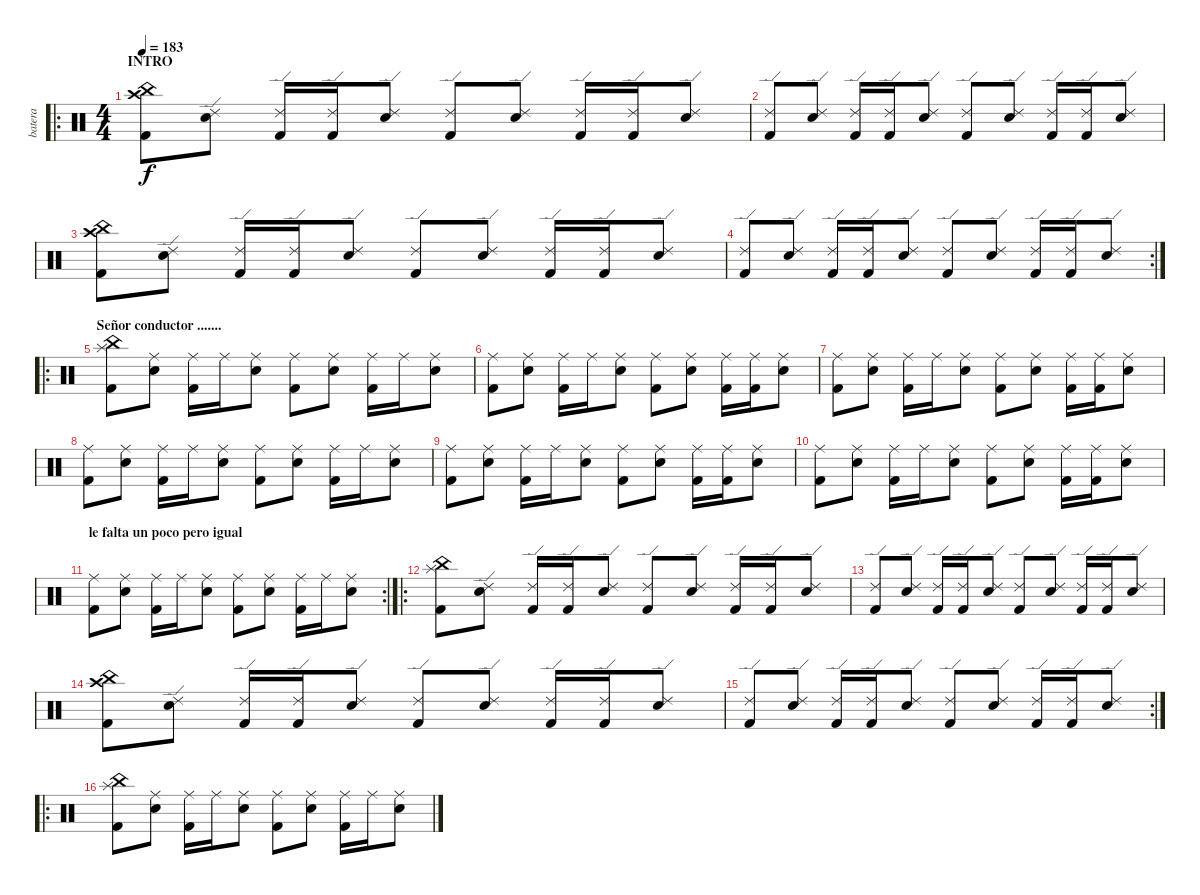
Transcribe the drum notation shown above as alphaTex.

\track ("batera" "batera") {instrument percussion}
\staff {score}
\articulation defaults
\ro
\ts (4 4)
\section ("" "INTRO")
\tempo 183
\clef neutral
\ks c
("China (hit)" "Crash high (hit)" "Kick (hit) 2").8{dy f} ("Ride (edge) 2" "Snare (hit) 2").8 ("Ride (edge) 2" "Kick (hit) 2").16 ("Ride (edge) 2" "Kick (hit) 2").16 ("Ride (edge) 2" "Snare (hit) 2").8 ("Ride (edge) 2" "Kick (hit) 2").8 ("Ride (edge) 2" "Snare (hit) 2").8 ("Ride (edge) 2" "Kick (hit) 2").16 ("Ride (edge) 2" "Kick (hit) 2").16 ("Ride (edge) 2" "Snare (hit) 2").8 |
("Ride (edge) 2" "Kick (hit) 2").8 ("Ride (edge) 2" "Snare (hit) 2").8 ("Ride (edge) 2" "Kick (hit) 2").16 ("Ride (edge) 2" "Kick (hit) 2").16 ("Ride (edge) 2" "Snare (hit) 2").8 ("Ride (edge) 2" "Kick (hit) 2").8 ("Ride (edge) 2" "Snare (hit) 2").8 ("Ride (edge) 2" "Kick (hit) 2").16 ("Ride (edge) 2" "Kick (hit) 2").16 ("Ride (edge) 2" "Snare (hit) 2").8 |
("China (hit)" "Crash high (hit)" "Kick (hit) 2").8 ("Ride (edge) 2" "Snare (hit) 2").8 ("Ride (edge) 2" "Kick (hit) 2").16 ("Ride (edge) 2" "Kick (hit) 2").16 ("Ride (edge) 2" "Snare (hit) 2").8 ("Ride (edge) 2" "Kick (hit) 2").8 ("Ride (edge) 2" "Snare (hit) 2").8 ("Ride (edge) 2" "Kick (hit) 2").16 ("Ride (edge) 2" "Kick (hit) 2").16 ("Ride (edge) 2" "Snare (hit) 2").8 |
\rc 2
("Ride (edge) 2" "Kick (hit) 2").8 ("Ride (edge) 2" "Snare (hit) 2").8 ("Ride (edge) 2" "Kick (hit) 2").16 ("Ride (edge) 2" "Kick (hit) 2").16 ("Ride (edge) 2" "Snare (hit) 2").8 ("Ride (edge) 2" "Kick (hit) 2").8 ("Ride (edge) 2" "Snare (hit) 2").8 ("Ride (edge) 2" "Kick (hit) 2").16 ("Ride (edge) 2" "Kick (hit) 2").16 ("Ride (edge) 2" "Snare (hit) 2").8 |
\ro
\section ("" "Señor conductor .......")
("China (hit)" "Splash (hit)" "Kick (hit) 2").8 ("Ride (middle)" "Snare (hit) 2").8 ("Ride (middle)" "Kick (hit) 2").16 "Ride (middle)".16 ("Ride (middle)" "Snare (hit) 2").8 ("Ride (middle)" "Kick (hit) 2").8 ("Ride (middle)" "Snare (hit) 2").8 ("Ride (middle)" "Kick (hit) 2").16 "Ride (middle)".16 ("Ride (middle)" "Snare (hit) 2").8 |
("Ride (middle)" "Kick (hit) 2").8 ("Ride (middle)" "Snare (hit) 2").8 ("Ride (middle)" "Kick (hit) 2").16 "Ride (middle)".16 ("Ride (middle)" "Snare (hit) 2").8 ("Ride (middle)" "Kick (hit) 2").8 ("Ride (middle)" "Snare (hit) 2").8 ("Ride (middle)" "Kick (hit) 2").16 ("Ride (middle)" "Kick (hit) 2").16 ("Ride (middle)" "Snare (hit) 2").8 |
("Ride (middle)" "Kick (hit) 2").8 ("Ride (middle)" "Snare (hit) 2").8 ("Ride (middle)" "Kick (hit) 2").16 "Ride (middle)".16 ("Ride (middle)" "Snare (hit) 2").8 ("Ride (middle)" "Kick (hit) 2").8 ("Ride (middle)" "Snare (hit) 2").8 ("Ride (middle)" "Kick (hit) 2").16 ("Ride (middle)" "Kick (hit) 2").16 ("Ride (middle)" "Snare (hit) 2").8 |
("Ride (middle)" "Kick (hit) 2").8 ("Ride (middle)" "Snare (hit) 2").8 ("Ride (middle)" "Kick (hit) 2").16 "Ride (middle)".16 ("Ride (middle)" "Snare (hit) 2").8 ("Ride (middle)" "Kick (hit) 2").8 ("Ride (middle)" "Snare (hit) 2").8 ("Ride (middle)" "Kick (hit) 2").16 "Ride (middle)".16 ("Ride (middle)" "Snare (hit) 2").8 |
("Ride (middle)" "Kick (hit) 2").8 ("Ride (middle)" "Snare (hit) 2").8 ("Ride (middle)" "Kick (hit) 2").16 "Ride (middle)".16 ("Ride (middle)" "Snare (hit) 2").8 ("Ride (middle)" "Kick (hit) 2").8 ("Ride (middle)" "Snare (hit) 2").8 ("Ride (middle)" "Kick (hit) 2").16 ("Ride (middle)" "Kick (hit) 2").16 ("Ride (middle)" "Snare (hit) 2").8 |
("Ride (middle)" "Kick (hit) 2").8 ("Ride (middle)" "Snare (hit) 2").8 ("Ride (middle)" "Kick (hit) 2").16 "Ride (middle)".16 ("Ride (middle)" "Snare (hit) 2").8 ("Ride (middle)" "Kick (hit) 2").8 ("Ride (middle)" "Snare (hit) 2").8 ("Ride (middle)" "Kick (hit) 2").16 ("Ride (middle)" "Kick (hit) 2").16 ("Ride (middle)" "Snare (hit) 2").8 |
\rc 2
\section ("" "le falta un poco pero igual ")
("Ride (middle)" "Kick (hit) 2").8 ("Ride (middle)" "Snare (hit) 2").8 ("Ride (middle)" "Kick (hit) 2").16 "Ride (middle)".16 ("Ride (middle)" "Snare (hit) 2").8 ("Ride (middle)" "Kick (hit) 2").8 ("Ride (middle)" "Snare (hit) 2").8 ("Ride (middle)" "Kick (hit) 2").16 "Ride (middle)".16 ("Ride (middle)" "Snare (hit) 2").8 |
\ro
("China (hit)" "Splash (hit)" "Kick (hit) 2").8 ("Ride (edge) 2" "Snare (hit) 2").8 ("Ride (edge) 2" "Kick (hit) 2").16 ("Ride (edge) 2" "Kick (hit) 2").16 ("Ride (edge) 2" "Snare (hit) 2").8 ("Ride (edge) 2" "Kick (hit) 2").8 ("Ride (edge) 2" "Snare (hit) 2").8 ("Ride (edge) 2" "Kick (hit) 2").16 ("Ride (edge) 2" "Kick (hit) 2").16 ("Ride (edge) 2" "Snare (hit) 2").8 |
("Ride (edge) 2" "Kick (hit) 2").8 ("Ride (edge) 2" "Snare (hit) 2").8 ("Ride (edge) 2" "Kick (hit) 2").16 ("Ride (edge) 2" "Kick (hit) 2").16 ("Ride (edge) 2" "Snare (hit) 2").8 ("Ride (edge) 2" "Kick (hit) 2").8 ("Ride (edge) 2" "Snare (hit) 2").8 ("Ride (edge) 2" "Kick (hit) 2").16 ("Ride (edge) 2" "Kick (hit) 2").16 ("Ride (edge) 2" "Snare (hit) 2").8 |
("China (hit)" "Crash high (hit)" "Kick (hit) 2").8 ("Ride (edge) 2" "Snare (hit) 2").8 ("Ride (edge) 2" "Kick (hit) 2").16 ("Ride (edge) 2" "Kick (hit) 2").16 ("Ride (edge) 2" "Snare (hit) 2").8 ("Ride (edge) 2" "Kick (hit) 2").8 ("Ride (edge) 2" "Snare (hit) 2").8 ("Ride (edge) 2" "Kick (hit) 2").16 ("Ride (edge) 2" "Kick (hit) 2").16 ("Ride (edge) 2" "Snare (hit) 2").8 |
\rc 2
("Ride (edge) 2" "Kick (hit) 2").8 ("Ride (edge) 2" "Snare (hit) 2").8 ("Ride (edge) 2" "Kick (hit) 2").16 ("Ride (edge) 2" "Kick (hit) 2").16 ("Ride (edge) 2" "Snare (hit) 2").8 ("Ride (edge) 2" "Kick (hit) 2").8 ("Ride (edge) 2" "Snare (hit) 2").8 ("Ride (edge) 2" "Kick (hit) 2").16 ("Ride (edge) 2" "Kick (hit) 2").16 ("Ride (edge) 2" "Snare (hit) 2").8 |
\ro
("China (hit)" "Splash (hit)" "Kick (hit) 2").8 ("Ride (middle)" "Snare (hit) 2").8 ("Ride (middle)" "Kick (hit) 2").16 "Ride (middle)".16 ("Ride (middle)" "Snare (hit) 2").8 ("Ride (middle)" "Kick (hit) 2").8 ("Ride (middle)" "Snare (hit) 2").8 ("Ride (middle)" "Kick (hit) 2").16 "Ride (middle)".16 ("Ride (middle)" "Snare (hit) 2").8
